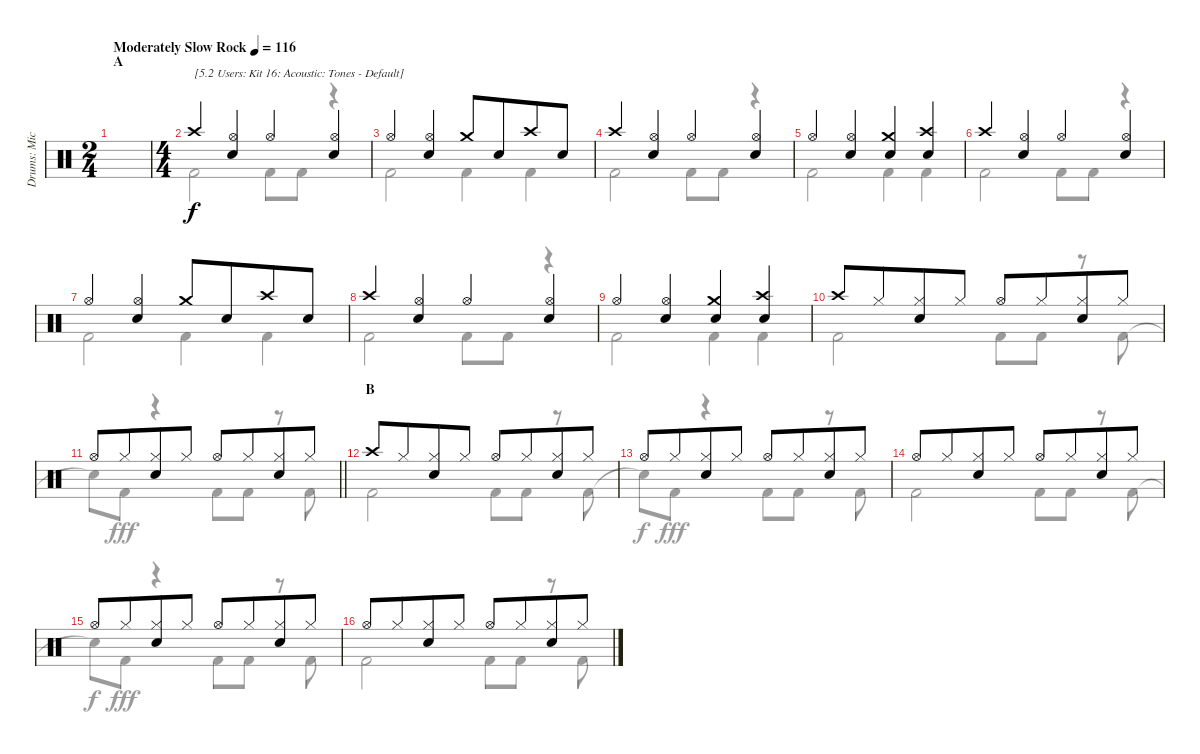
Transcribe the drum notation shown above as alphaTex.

\track ("Drums: Mick" "Drums: Mic") {instrument percussion}
\staff {score}
\articulation defaults
\voice
\ts (2 4)
\section ("" "A")
\tempo (116 "Moderately Slow Rock")
\clef neutral
\ks c
|
\ts (4 4)
"Crash high (hit)".4{txt "[5.2 Users: Kit 16: Acoustic: Tones - Default]"} ("Hi-Hat (open)" "Snare (hit) 2").4 "Hi-Hat (open)".4 ("Hi-Hat (open)" "Snare (hit) 2").4 |
"Hi-Hat (open)".4 ("Hi-Hat (open)" "Snare (hit) 2").4 "Crash medium (hit)".8 "Snare (hit) 2".8{beam merge} "Crash high (hit)".8 "Snare (hit) 2".8 |
"Crash high (hit)".4 ("Hi-Hat (open)" "Snare (hit) 2").4 "Hi-Hat (open)".4 ("Hi-Hat (open)" "Snare (hit) 2").4 |
"Hi-Hat (open)".4 ("Hi-Hat (open)" "Snare (hit) 2").4 ("Crash medium (hit)" "Snare (hit) 2").4 ("Crash high (hit)" "Snare (hit) 2").4 |
"Crash high (hit)".4 ("Hi-Hat (open)" "Snare (hit) 2").4 "Hi-Hat (open)".4 ("Hi-Hat (open)" "Snare (hit) 2").4 |
"Hi-Hat (open)".4 ("Hi-Hat (open)" "Snare (hit) 2").4 "Crash medium (hit)".8 "Snare (hit) 2".8{beam merge} "Crash high (hit)".8 "Snare (hit) 2".8 |
"Crash high (hit)".4 ("Hi-Hat (open)" "Snare (hit) 2").4 "Hi-Hat (open)".4 ("Hi-Hat (open)" "Snare (hit) 2").4 |
"Hi-Hat (open)".4 ("Hi-Hat (open)" "Snare (hit) 2").4 ("Crash medium (hit)" "Snare (hit) 2").4 ("Crash high (hit)" "Snare (hit) 2").4 |
"Crash high (hit)".8 "Hi-Hat (closed)".8{beam merge} ("Hi-Hat (closed)" "Snare (hit) 2").8 "Hi-Hat (closed)".8 "Hi-Hat (open)".8 "Hi-Hat (closed)".8{beam merge} ("Hi-Hat (closed)" "Snare (hit) 2").8 "Hi-Hat (closed)".8 |
\barLineRight lightlight "Hi-Hat (open)".8 "Hi-Hat (closed)".8{beam merge}
("Hi-Hat (closed)" "Snare (hit) 2").8 "Hi-Hat (closed)".8 "Hi-Hat (open)".8 "Hi-Hat (closed)".8{beam merge} ("Hi-Hat (closed)" "Snare (hit) 2").8 "Hi-Hat (closed)".8 |
\section ("" "B")
"Crash high (hit)".8 "Hi-Hat (closed)".8{beam merge} ("Hi-Hat (closed)" "Snare (hit) 2").8 "Hi-Hat (closed)".8 "Hi-Hat (open)".8 "Hi-Hat (closed)".8{beam merge} ("Hi-Hat (closed)" "Snare (hit) 2").8 "Hi-Hat (closed)".8 |
"Hi-Hat (open)".8 "Hi-Hat (closed)".8{beam merge} ("Hi-Hat (closed)" "Snare (hit) 2").8 "Hi-Hat (closed)".8 "Hi-Hat (open)".8 "Hi-Hat (closed)".8{beam merge} ("Hi-Hat (closed)" "Snare (hit) 2").8 "Hi-Hat (closed)".8 |
"Hi-Hat (open)".8 "Hi-Hat (closed)".8{beam merge} ("Hi-Hat (closed)" "Snare (hit) 2").8 "Hi-Hat (closed)".8 "Hi-Hat (open)".8 "Hi-Hat (closed)".8{beam merge} ("Hi-Hat (closed)" "Snare (hit) 2").8 "Hi-Hat (closed)".8 |
"Hi-Hat (open)".8 "Hi-Hat (closed)".8{beam merge} ("Hi-Hat (closed)" "Snare (hit) 2").8 "Hi-Hat (closed)".8 "Hi-Hat (open)".8 "Hi-Hat (closed)".8{beam merge} ("Hi-Hat (closed)" "Snare (hit) 2").8 "Hi-Hat (closed)".8 |
"Hi-Hat (open)".8 "Hi-Hat (closed)".8{beam merge} ("Hi-Hat (closed)" "Snare (hit) 2").8 "Hi-Hat (closed)".8 "Hi-Hat (open)".8 "Hi-Hat (closed)".8{beam merge} ("Hi-Hat (closed)" "Snare (hit) 2").8 "Hi-Hat (closed)".8
\voice
\clef neutral
\ottava regular
\simile none
\ks c
|
"Kick (hit) 2".2 "Kick (hit) 2".8 "Kick (hit) 2".8 r.4 |
"Kick (hit) 2".2 "Kick (hit) 2".4 "Kick (hit) 2".4 |
"Kick (hit) 2".2 "Kick (hit) 2".8 "Kick (hit) 2".8 r.4 |
"Kick (hit) 2".2 "Kick (hit) 2".4 "Kick (hit) 2".4 |
"Kick (hit) 2".2 "Kick (hit) 2".8 "Kick (hit) 2".8 r.4 |
"Kick (hit) 2".2 "Kick (hit) 2".4 "Kick (hit) 2".4 |
"Kick (hit) 2".2 "Kick (hit) 2".8 "Kick (hit) 2".8 r.4 |
"Kick (hit) 2".2 "Kick (hit) 2".4 "Kick (hit) 2".4 |
"Kick (hit) 2".2 "Kick (hit) 2".8 "Kick (hit) 2".8 r.8 "Kick (hit) 2".8 |
\barLineRight lightlight "Snare (hit)"{t}.8{dy f} "Kick (hit) 2".8{dy fff}
r.4 "Kick (hit) 2".8 "Kick (hit) 2".8 r.8 "Kick (hit) 2".8 |
"Kick (hit) 2".2 "Kick (hit) 2".8 "Kick (hit) 2".8 r.8 "Kick (hit) 2".8 |
"Snare (hit)"{t}.8{dy f} "Kick (hit) 2".8{dy fff} r.4 "Kick (hit) 2".8 "Kick (hit) 2".8 r.8 "Kick (hit) 2".8 |
"Kick (hit) 2".2 "Kick (hit) 2".8 "Kick (hit) 2".8 r.8 "Kick (hit) 2".8 |
"Snare (hit)"{t}.8{dy f} "Kick (hit) 2".8{dy fff} r.4 "Kick (hit) 2".8 "Kick (hit) 2".8 r.8 "Kick (hit) 2".8 |
"Kick (hit) 2".2 "Kick (hit) 2".8 "Kick (hit) 2".8 r.8 "Kick (hit) 2".8
